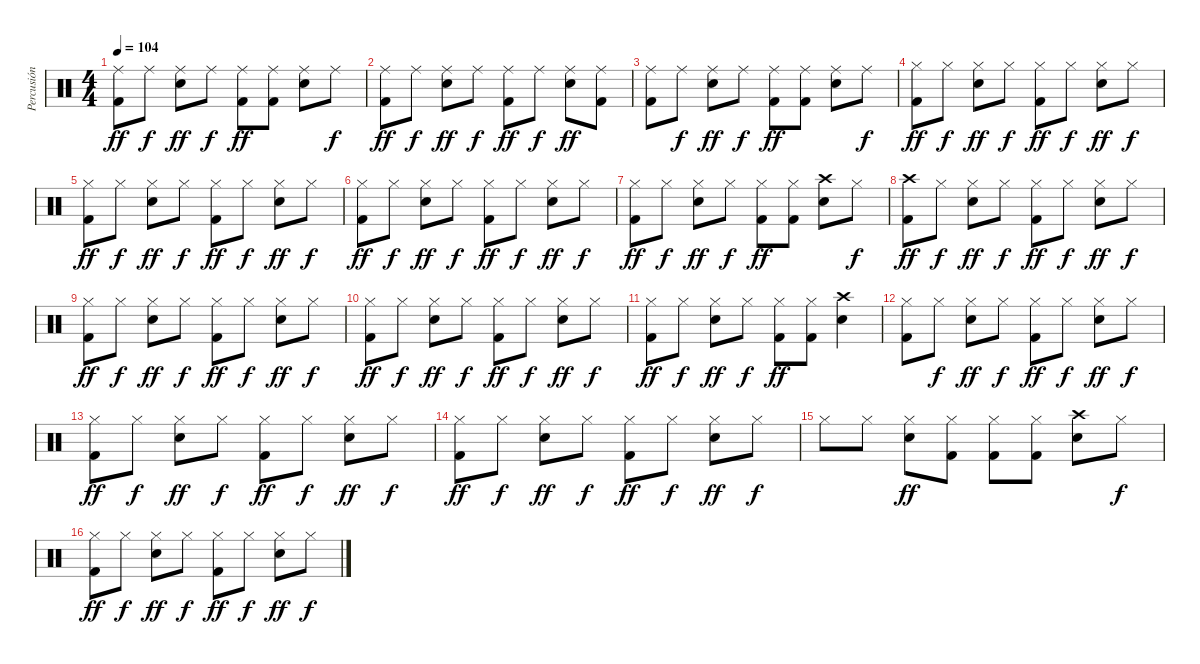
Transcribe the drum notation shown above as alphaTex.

\track ("Percusión" "Percusión") {instrument percussion}
\staff {score}
\articulation defaults
\ts (4 4)
\tempo 104
\clef neutral
\ks c
("Ride (middle)" "Kick (hit) 2").8{dy ff} "Ride (middle)".8{dy f} ("Ride (middle)" "Snare (hit) 2").8{dy ff} "Ride (middle)".8{dy f} ("Ride (middle)" "Kick (hit) 2").8{dy ff} ("Ride (middle)" "Kick (hit) 2").8 ("Ride (middle)" "Snare (hit) 2").8 "Ride (middle)".8{dy f} |
("Ride (middle)" "Kick (hit) 2").8{dy ff} "Ride (middle)".8{dy f} ("Ride (middle)" "Snare (hit) 2").8{dy ff} "Ride (middle)".8{dy f} ("Ride (middle)" "Kick (hit) 2").8{dy ff} "Ride (middle)".8{dy f} ("Ride (middle)" "Snare (hit) 2").8{dy ff} ("Ride (middle)" "Kick (hit) 2").8 |
("Ride (middle)" "Kick (hit) 2").8 "Ride (middle)".8{dy f} ("Ride (middle)" "Snare (hit) 2").8{dy ff} "Ride (middle)".8{dy f} ("Ride (middle)" "Kick (hit) 2").8{dy ff} ("Ride (middle)" "Kick (hit) 2").8 ("Ride (middle)" "Snare (hit) 2").8 "Ride (middle)".8{dy f} |
("Hi-Hat (closed)" "Kick (hit) 2").8{dy ff} "Hi-Hat (closed)".8{dy f} ("Hi-Hat (closed)" "Snare (hit) 2").8{dy ff} "Hi-Hat (closed)".8{dy f} ("Hi-Hat (closed)" "Kick (hit) 2").8{dy ff} "Hi-Hat (closed)".8{dy f} ("Hi-Hat (closed)" "Snare (hit) 2").8{dy ff} "Hi-Hat (closed)".8{dy f} |
("Hi-Hat (closed)" "Kick (hit) 2").8{dy ff} "Hi-Hat (closed)".8{dy f} ("Hi-Hat (closed)" "Snare (hit) 2").8{dy ff} "Hi-Hat (closed)".8{dy f} ("Hi-Hat (closed)" "Kick (hit) 2").8{dy ff} "Hi-Hat (closed)".8{dy f} ("Hi-Hat (closed)" "Snare (hit) 2").8{dy ff} "Hi-Hat (closed)".8{dy f} |
("Hi-Hat (closed)" "Kick (hit) 2").8{dy ff} "Hi-Hat (closed)".8{dy f} ("Hi-Hat (closed)" "Snare (hit) 2").8{dy ff} "Hi-Hat (closed)".8{dy f} ("Hi-Hat (closed)" "Kick (hit) 2").8{dy ff} "Hi-Hat (closed)".8{dy f} ("Hi-Hat (closed)" "Snare (hit) 2").8{dy ff} "Hi-Hat (closed)".8{dy f} |
("Hi-Hat (closed)" "Kick (hit) 2").8{dy ff} "Hi-Hat (closed)".8{dy f} ("Hi-Hat (closed)" "Snare (hit) 2").8{dy ff} "Hi-Hat (closed)".8{dy f} ("Hi-Hat (closed)" "Kick (hit) 2").8{dy ff} ("Hi-Hat (closed)" "Kick (hit) 2").8 ("Crash high (hit)" "Snare (hit) 2").8 "Hi-Hat (closed)".8{dy f} |
("Crash high (hit)" "Kick (hit) 2").8{dy ff} "Hi-Hat (closed)".8{dy f} ("Hi-Hat (closed)" "Snare (hit) 2").8{dy ff} "Hi-Hat (closed)".8{dy f} ("Hi-Hat (closed)" "Kick (hit) 2").8{dy ff} "Hi-Hat (closed)".8{dy f} ("Hi-Hat (closed)" "Snare (hit) 2").8{dy ff} "Hi-Hat (closed)".8{dy f} |
("Hi-Hat (closed)" "Kick (hit) 2").8{dy ff} "Hi-Hat (closed)".8{dy f} ("Hi-Hat (closed)" "Snare (hit) 2").8{dy ff} "Hi-Hat (closed)".8{dy f} ("Hi-Hat (closed)" "Kick (hit) 2").8{dy ff} "Hi-Hat (closed)".8{dy f} ("Hi-Hat (closed)" "Snare (hit) 2").8{dy ff} "Hi-Hat (closed)".8{dy f} |
("Hi-Hat (closed)" "Kick (hit) 2").8{dy ff} "Hi-Hat (closed)".8{dy f} ("Hi-Hat (closed)" "Snare (hit) 2").8{dy ff} "Hi-Hat (closed)".8{dy f} ("Hi-Hat (closed)" "Kick (hit) 2").8{dy ff} "Hi-Hat (closed)".8{dy f} ("Hi-Hat (closed)" "Snare (hit) 2").8{dy ff} "Hi-Hat (closed)".8{dy f} |
("Hi-Hat (closed)" "Kick (hit) 2").8{dy ff} "Hi-Hat (closed)".8{dy f} ("Hi-Hat (closed)" "Snare (hit) 2").8{dy ff} "Hi-Hat (closed)".8{dy f} ("Hi-Hat (closed)" "Kick (hit) 2").8{dy ff} ("Hi-Hat (closed)" "Kick (hit) 2").8 ("Crash high (hit)" "Snare (hit) 2").4 |
("Hi-Hat (closed)" "Kick (hit) 2").8 "Hi-Hat (closed)".8{dy f} ("Hi-Hat (closed)" "Snare (hit) 2").8{dy ff} "Hi-Hat (closed)".8{dy f} ("Hi-Hat (closed)" "Kick (hit) 2").8{dy ff} "Hi-Hat (closed)".8{dy f} ("Hi-Hat (closed)" "Snare (hit) 2").8{dy ff} "Hi-Hat (closed)".8{dy f} |
("Hi-Hat (closed)" "Kick (hit) 2").8{dy ff} "Hi-Hat (closed)".8{dy f} ("Hi-Hat (closed)" "Snare (hit) 2").8{dy ff} "Hi-Hat (closed)".8{dy f} ("Hi-Hat (closed)" "Kick (hit) 2").8{dy ff} "Hi-Hat (closed)".8{dy f} ("Hi-Hat (closed)" "Snare (hit) 2").8{dy ff} "Hi-Hat (closed)".8{dy f} |
("Hi-Hat (closed)" "Kick (hit) 2").8{dy ff} "Hi-Hat (closed)".8{dy f} ("Hi-Hat (closed)" "Snare (hit) 2").8{dy ff} "Hi-Hat (closed)".8{dy f} ("Hi-Hat (closed)" "Kick (hit) 2").8{dy ff} "Hi-Hat (closed)".8{dy f} ("Hi-Hat (closed)" "Snare (hit) 2").8{dy ff} "Hi-Hat (closed)".8{dy f} |
"Hi-Hat (closed)".8 "Hi-Hat (closed)".8 ("Hi-Hat (closed)" "Snare (hit) 2").8{dy ff} ("Hi-Hat (closed)" "Kick (hit) 2").8 ("Hi-Hat (closed)" "Kick (hit) 2").8 ("Hi-Hat (closed)" "Kick (hit) 2").8 ("Crash high (hit)" "Snare (hit) 2").8 "Hi-Hat (closed)".8{dy f} |
("Hi-Hat (closed)" "Kick (hit) 2").8{dy ff} "Hi-Hat (closed)".8{dy f} ("Hi-Hat (closed)" "Snare (hit) 2").8{dy ff} "Hi-Hat (closed)".8{dy f} ("Hi-Hat (closed)" "Kick (hit) 2").8{dy ff} "Hi-Hat (closed)".8{dy f} ("Hi-Hat (closed)" "Snare (hit) 2").8{dy ff} "Hi-Hat (closed)".8{dy f}
